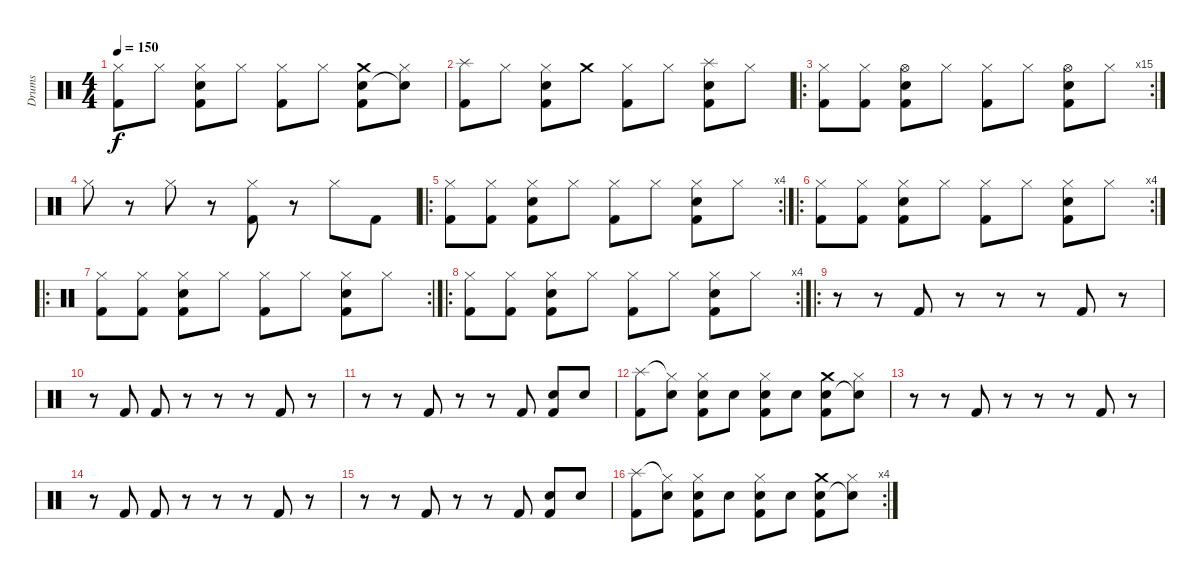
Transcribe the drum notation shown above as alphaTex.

\track ("Drums" "Drums") {instrument percussion}
\staff {score}
\articulation defaults
\ts (4 4)
\tempo 150
\clef neutral
\ks c
("Hi-Hat (closed)" "Kick (hit) 2").8{dy f} "Hi-Hat (closed)".8 ("Hi-Hat (closed)" "Snare (hit) 2" "Kick (hit) 2").8 "Hi-Hat (closed)".8 ("Hi-Hat (closed)" "Kick (hit) 2").8 "Hi-Hat (closed)".8 ("Crash medium (hit)" "Snare (hit) 2" "Kick (hit) 2").8 ("Hi-Hat (closed)" "Snare (hit)"{t}).8 |
("Splash (hit)" "Kick (hit) 2").8 "Hi-Hat (closed)".8 ("Hi-Hat (closed)" "Snare (hit) 2" "Kick (hit) 2").8 "Crash medium (hit)".8 ("Hi-Hat (closed)" "Kick (hit) 2").8 "Hi-Hat (closed)".8 ("Splash (hit)" "Snare (hit) 2" "Kick (hit) 2").8 "Hi-Hat (closed)".8 |
\ro
\rc 15
("Hi-Hat (closed)" "Kick (hit) 2").8 ("Hi-Hat (closed)" "Kick (hit) 2").8 ("Hi-Hat (open)" "Snare (hit) 2" "Kick (hit) 2").8 "Hi-Hat (closed)".8 ("Hi-Hat (closed)" "Kick (hit) 2").8 "Hi-Hat (closed)".8 ("Hi-Hat (open)" "Snare (hit) 2" "Kick (hit) 2").8 "Hi-Hat (closed)".8 |
"Hi-Hat (closed)".8 r.8 "Hi-Hat (closed)".8 r.8 ("Hi-Hat (closed)" "Kick (hit) 2").8 r.8 "Hi-Hat (closed)".8 "Kick (hit) 2".8 |
\ro
\rc 4
("Hi-Hat (closed)" "Kick (hit) 2").8 ("Hi-Hat (closed)" "Kick (hit) 2").8 ("Hi-Hat (closed)" "Snare (hit) 2" "Kick (hit) 2").8 "Hi-Hat (closed)".8 ("Hi-Hat (closed)" "Kick (hit) 2").8 "Hi-Hat (closed)".8 ("Hi-Hat (closed)" "Snare (hit) 2" "Kick (hit) 2").8 "Hi-Hat (closed)".8 |
\ro
\rc 4
("Hi-Hat (closed)" "Kick (hit) 2").8 ("Hi-Hat (closed)" "Kick (hit) 2").8 ("Hi-Hat (closed)" "Snare (hit) 2" "Kick (hit) 2").8 "Hi-Hat (closed)".8 ("Hi-Hat (closed)" "Kick (hit) 2").8 "Hi-Hat (closed)".8 ("Hi-Hat (closed)" "Snare (hit) 2" "Kick (hit) 2").8 "Hi-Hat (closed)".8 |
\ro
\rc 2
("Hi-Hat (closed)" "Kick (hit) 2").8 ("Hi-Hat (closed)" "Kick (hit) 2").8 ("Hi-Hat (closed)" "Snare (hit) 2" "Kick (hit) 2").8 "Hi-Hat (closed)".8 ("Hi-Hat (closed)" "Kick (hit) 2").8 "Hi-Hat (closed)".8 ("Hi-Hat (closed)" "Snare (hit) 2" "Kick (hit) 2").8 "Hi-Hat (closed)".8 |
\ro
\rc 4
("Hi-Hat (closed)" "Kick (hit) 2").8 ("Hi-Hat (closed)" "Kick (hit) 2").8 ("Hi-Hat (closed)" "Snare (hit) 2" "Kick (hit) 2").8 "Hi-Hat (closed)".8 ("Hi-Hat (closed)" "Kick (hit) 2").8 "Hi-Hat (closed)".8 ("Hi-Hat (closed)" "Snare (hit) 2" "Kick (hit) 2").8 "Hi-Hat (closed)".8 |
\ro
r.8{volume 14} r.8 "Kick (hit) 2".8 r.8 r.8 r.8 "Kick (hit) 2".8 r.8 |
r.8 "Kick (hit) 2".8 "Kick (hit) 2".8 r.8 r.8 r.8 "Kick (hit) 2".8 r.8 |
r.8 r.8 "Kick (hit) 2".8 r.8 r.8 "Kick (hit) 2".8 ("Snare (hit) 2" "Kick (hit) 2").8 "Snare (hit) 2".8 |
("Splash (hit)" "Kick (hit) 2").8 ("Hi-Hat (closed)"{t} "Snare (hit) 2").8 ("Hi-Hat (closed)" "Snare (hit) 2" "Kick (hit) 2").8 "Snare (hit) 2".8 ("Hi-Hat (closed)" "Snare (hit) 2" "Kick (hit) 2").8 "Snare (hit) 2".8 ("Crash medium (hit)" "Snare (hit) 2" "Kick (hit) 2").8 ("Hi-Hat (closed)" "Snare (hit)"{t}).8 |
r.8 r.8 "Kick (hit) 2".8 r.8 r.8 r.8 "Kick (hit) 2".8 r.8 |
r.8 "Kick (hit) 2".8 "Kick (hit) 2".8 r.8 r.8 r.8 "Kick (hit) 2".8 r.8 |
r.8 r.8 "Kick (hit) 2".8 r.8 r.8 "Kick (hit) 2".8 ("Snare (hit) 2" "Kick (hit) 2").8 "Snare (hit) 2".8 |
\rc 4
("Splash (hit)" "Kick (hit) 2").8 ("Hi-Hat (closed)"{t} "Snare (hit) 2").8 ("Hi-Hat (closed)" "Snare (hit) 2" "Kick (hit) 2").8 "Snare (hit) 2".8 ("Hi-Hat (closed)" "Snare (hit) 2" "Kick (hit) 2").8 "Snare (hit) 2".8 ("Crash medium (hit)" "Snare (hit) 2" "Kick (hit) 2").8 ("Hi-Hat (closed)" "Snare (hit)"{t}).8
